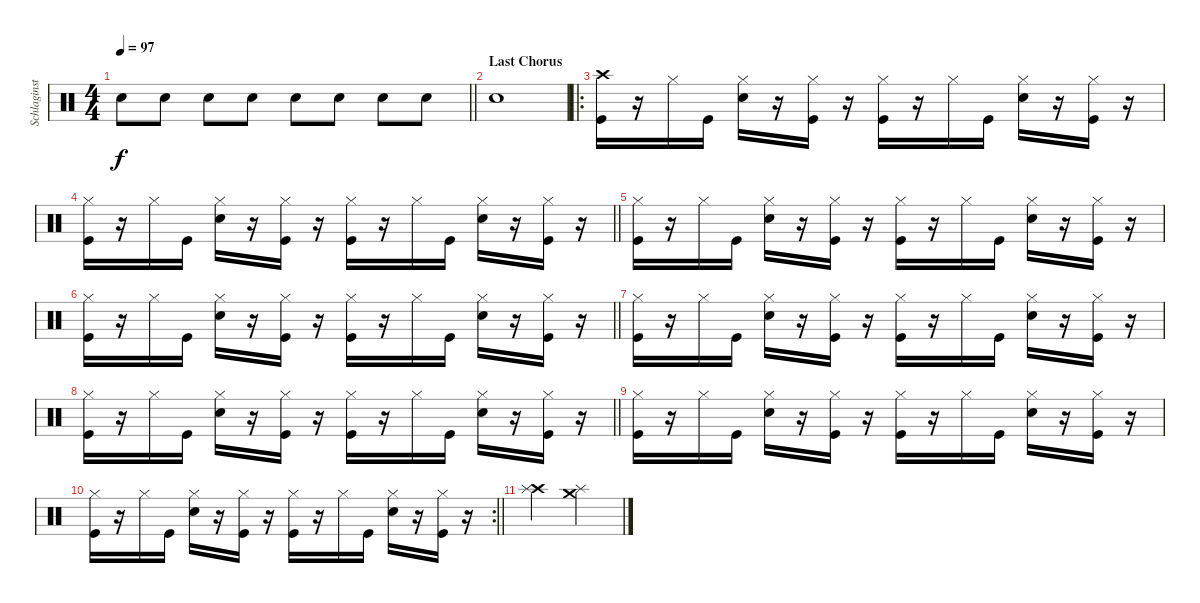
\track ("Schlaginstrumente - Auswahl" "Schlaginst") {instrument percussion}
\staff {score}
\articulation defaults
\ts (4 4)
\tempo 97
\clef neutral
\barLineRight lightlight
\ks c "Snare (hit) 2".8{dy f} "Snare (hit) 2".8 "Snare (hit) 2".8 "Snare (hit) 2".8 "Snare (hit) 2".8 "Snare (hit) 2".8 "Snare (hit) 2".8 "Snare (hit) 2".8
|
\section ("" "Last Chorus")
"Snare (hit) 2".1 |
\ro
("Crash high (hit)" "Kick (hit)").16 r.16 "Hi-Hat (closed)".16 "Kick (hit)".16 ("Hi-Hat (closed)" "Snare (hit) 2").16 r.16 ("Hi-Hat (closed)" "Kick (hit)").16 r.16 ("Hi-Hat (closed)" "Kick (hit)").16 r.16 "Hi-Hat (closed)".16 "Kick (hit)".16 ("Hi-Hat (closed)" "Snare (hit) 2").16 r.16 ("Hi-Hat (closed)" "Kick (hit)").16 r.16 |
\barLineRight lightlight
("Hi-Hat (closed)" "Kick (hit)").16 r.16 "Hi-Hat (closed)".16 "Kick (hit)".16 ("Hi-Hat (closed)" "Snare (hit) 2").16 r.16 ("Hi-Hat (closed)" "Kick (hit)").16 r.16 ("Hi-Hat (closed)" "Kick (hit)").16 r.16 "Hi-Hat (closed)".16 "Kick (hit)".16 ("Hi-Hat (closed)" "Snare (hit) 2").16 r.16 ("Hi-Hat (closed)" "Kick (hit)").16 r.16 |
("Hi-Hat (closed)" "Kick (hit)").16 r.16 "Hi-Hat (closed)".16 "Kick (hit)".16 ("Hi-Hat (closed)" "Snare (hit) 2").16 r.16 ("Hi-Hat (closed)" "Kick (hit)").16 r.16 ("Hi-Hat (closed)" "Kick (hit)").16 r.16 "Hi-Hat (closed)".16 "Kick (hit)".16 ("Hi-Hat (closed)" "Snare (hit) 2").16 r.16 ("Hi-Hat (closed)" "Kick (hit)").16 r.16 |
\barLineRight lightlight
("Hi-Hat (closed)" "Kick (hit)").16 r.16 "Hi-Hat (closed)".16 "Kick (hit)".16 ("Hi-Hat (closed)" "Snare (hit) 2").16 r.16 ("Hi-Hat (closed)" "Kick (hit)").16 r.16 ("Hi-Hat (closed)" "Kick (hit)").16 r.16 "Hi-Hat (closed)".16 "Kick (hit)".16 ("Hi-Hat (closed)" "Snare (hit) 2").16 r.16 ("Hi-Hat (closed)" "Kick (hit)").16 r.16 |
("Hi-Hat (closed)" "Kick (hit)").16 r.16 "Hi-Hat (closed)".16 "Kick (hit)".16 ("Hi-Hat (closed)" "Snare (hit) 2").16 r.16 ("Hi-Hat (closed)" "Kick (hit)").16 r.16 ("Hi-Hat (closed)" "Kick (hit)").16 r.16 "Hi-Hat (closed)".16 "Kick (hit)".16 ("Hi-Hat (closed)" "Snare (hit) 2").16 r.16 ("Hi-Hat (closed)" "Kick (hit)").16 r.16 |
\barLineRight lightlight
("Hi-Hat (closed)" "Kick (hit)").16 r.16 "Hi-Hat (closed)".16 "Kick (hit)".16 ("Hi-Hat (closed)" "Snare (hit) 2").16 r.16 ("Hi-Hat (closed)" "Kick (hit)").16 r.16 ("Hi-Hat (closed)" "Kick (hit)").16 r.16 "Hi-Hat (closed)".16 "Kick (hit)".16 ("Hi-Hat (closed)" "Snare (hit) 2").16 r.16 ("Hi-Hat (closed)" "Kick (hit)").16 r.16 |
("Hi-Hat (closed)" "Kick (hit)").16 r.16 "Hi-Hat (closed)".16 "Kick (hit)".16 ("Hi-Hat (closed)" "Snare (hit) 2").16 r.16 ("Hi-Hat (closed)" "Kick (hit)").16 r.16 ("Hi-Hat (closed)" "Kick (hit)").16 r.16 "Hi-Hat (closed)".16 "Kick (hit)".16 ("Hi-Hat (closed)" "Snare (hit) 2").16 r.16 ("Hi-Hat (closed)" "Kick (hit)").16 r.16 |
\rc 2
\barLineRight lightlight
("Hi-Hat (closed)" "Kick (hit)").16 r.16 "Hi-Hat (closed)".16 "Kick (hit)".16 ("Hi-Hat (closed)" "Snare (hit) 2").16 r.16 ("Hi-Hat (closed)" "Kick (hit)").16 r.16 ("Hi-Hat (closed)" "Kick (hit)").16 r.16 "Hi-Hat (closed)".16 "Kick (hit)".16 ("Hi-Hat (closed)" "Snare (hit) 2").16 r.16 ("Hi-Hat (closed)" "Kick (hit)").16 r.16 |
("Crash high (hit)" "Splash (hit)").2 ("Crash medium (hit)" "Splash (hit)").2
